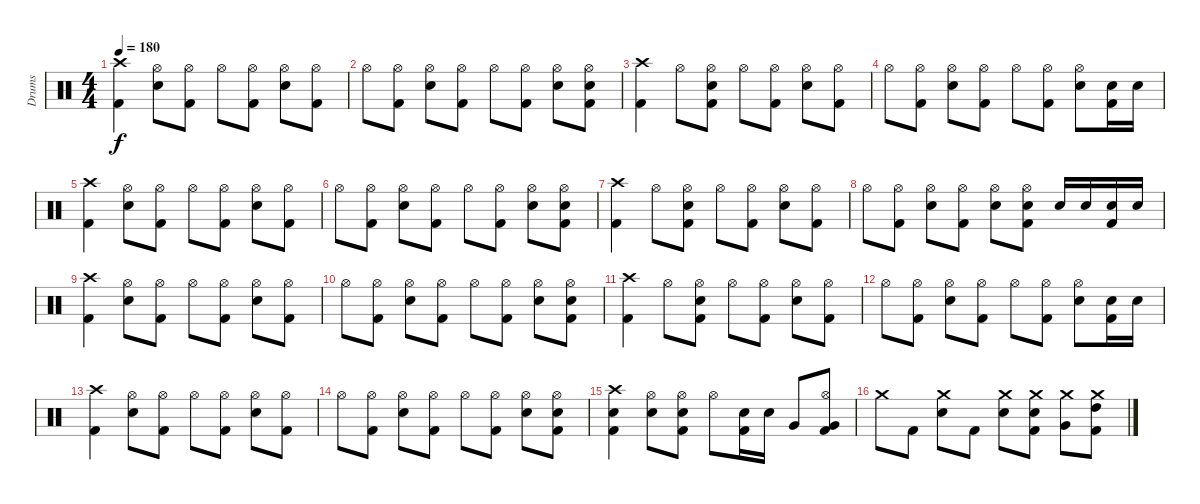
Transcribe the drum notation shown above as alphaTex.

\track ("Drums" "Drums") {instrument percussion}
\staff {score}
\articulation defaults
\ts (4 4)
\tempo 180
\clef neutral
\ks c
("Crash high (hit)" "Kick (hit) 2").4{dy f} ("Hi-Hat (open)" "Electric Snare (hit)").8 ("Hi-Hat (open)" "Kick (hit) 2").8 "Hi-Hat (open)".8 ("Hi-Hat (open)" "Kick (hit) 2").8 ("Hi-Hat (open)" "Electric Snare (hit)").8 ("Hi-Hat (open)" "Kick (hit) 2").8 |
"Hi-Hat (open)".8 ("Hi-Hat (open)" "Kick (hit) 2").8 ("Hi-Hat (open)" "Electric Snare (hit)").8 ("Hi-Hat (open)" "Kick (hit) 2").8 "Hi-Hat (open)".8 ("Hi-Hat (open)" "Kick (hit) 2").8 ("Hi-Hat (open)" "Electric Snare (hit)").8 ("Hi-Hat (open)" "Electric Snare (hit)" "Kick (hit) 2").8 |
("Crash high (hit)" "Kick (hit) 2").4 "Hi-Hat (open)".8 ("Hi-Hat (open)" "Electric Snare (hit)" "Kick (hit) 2").8 "Hi-Hat (open)".8 ("Hi-Hat (open)" "Kick (hit) 2").8 ("Hi-Hat (open)" "Electric Snare (hit)").8 ("Hi-Hat (open)" "Kick (hit) 2").8 |
"Hi-Hat (open)".8 ("Hi-Hat (open)" "Kick (hit) 2").8 ("Hi-Hat (open)" "Electric Snare (hit)").8 ("Hi-Hat (open)" "Kick (hit) 2").8 "Hi-Hat (open)".8 ("Hi-Hat (open)" "Kick (hit) 2").8 ("Hi-Hat (open)" "Electric Snare (hit)").8 ("Electric Snare (hit)" "Kick (hit) 2").16 "Electric Snare (hit)".16 |
("Crash high (hit)" "Kick (hit) 2").4 ("Hi-Hat (open)" "Electric Snare (hit)").8 ("Hi-Hat (open)" "Kick (hit) 2").8 "Hi-Hat (open)".8 ("Hi-Hat (open)" "Kick (hit) 2").8 ("Hi-Hat (open)" "Electric Snare (hit)").8 ("Hi-Hat (open)" "Kick (hit) 2").8 |
"Hi-Hat (open)".8 ("Hi-Hat (open)" "Kick (hit) 2").8 ("Hi-Hat (open)" "Electric Snare (hit)").8 ("Hi-Hat (open)" "Kick (hit) 2").8 "Hi-Hat (open)".8 ("Hi-Hat (open)" "Kick (hit) 2").8 ("Hi-Hat (open)" "Electric Snare (hit)").8 ("Hi-Hat (open)" "Electric Snare (hit)" "Kick (hit) 2").8 |
("Crash high (hit)" "Kick (hit) 2").4 "Hi-Hat (open)".8 ("Hi-Hat (open)" "Electric Snare (hit)" "Kick (hit) 2").8 "Hi-Hat (open)".8 ("Hi-Hat (open)" "Kick (hit) 2").8 ("Hi-Hat (open)" "Electric Snare (hit)").8 ("Hi-Hat (open)" "Kick (hit) 2").8 |
"Hi-Hat (open)".8 ("Hi-Hat (open)" "Kick (hit) 2").8 ("Hi-Hat (open)" "Electric Snare (hit)").8 ("Hi-Hat (open)" "Kick (hit) 2").8 ("Hi-Hat (open)" "Electric Snare (hit)").8 ("Hi-Hat (open)" "Electric Snare (hit)" "Kick (hit) 2").8 "Electric Snare (hit)".16 "Electric Snare (hit)".16 ("Electric Snare (hit)" "Kick (hit) 2").16 "Electric Snare (hit)".16 |
("Crash high (hit)" "Kick (hit) 2").4 ("Hi-Hat (open)" "Electric Snare (hit)").8 ("Hi-Hat (open)" "Kick (hit) 2").8 "Hi-Hat (open)".8 ("Hi-Hat (open)" "Kick (hit) 2").8 ("Hi-Hat (open)" "Electric Snare (hit)").8 ("Hi-Hat (open)" "Kick (hit) 2").8 |
"Hi-Hat (open)".8 ("Hi-Hat (open)" "Kick (hit) 2").8 ("Hi-Hat (open)" "Electric Snare (hit)").8 ("Hi-Hat (open)" "Kick (hit) 2").8 "Hi-Hat (open)".8 ("Hi-Hat (open)" "Kick (hit) 2").8 ("Hi-Hat (open)" "Electric Snare (hit)").8 ("Hi-Hat (open)" "Electric Snare (hit)" "Kick (hit) 2").8 |
("Crash high (hit)" "Kick (hit) 2").4 "Hi-Hat (open)".8 ("Hi-Hat (open)" "Electric Snare (hit)" "Kick (hit) 2").8 "Hi-Hat (open)".8 ("Hi-Hat (open)" "Kick (hit) 2").8 ("Hi-Hat (open)" "Electric Snare (hit)").8 ("Hi-Hat (open)" "Kick (hit) 2").8 |
"Hi-Hat (open)".8 ("Hi-Hat (open)" "Kick (hit) 2").8 ("Hi-Hat (open)" "Electric Snare (hit)").8 ("Hi-Hat (open)" "Kick (hit) 2").8 "Hi-Hat (open)".8 ("Hi-Hat (open)" "Kick (hit) 2").8 ("Hi-Hat (open)" "Electric Snare (hit)").8 ("Electric Snare (hit)" "Kick (hit) 2").16 "Electric Snare (hit)".16 |
("Crash high (hit)" "Kick (hit) 2").4 ("Hi-Hat (open)" "Electric Snare (hit)").8 ("Hi-Hat (open)" "Kick (hit) 2").8 "Hi-Hat (open)".8 ("Hi-Hat (open)" "Kick (hit) 2").8 ("Hi-Hat (open)" "Electric Snare (hit)").8 ("Hi-Hat (open)" "Kick (hit) 2").8 |
"Hi-Hat (open)".8 ("Hi-Hat (open)" "Kick (hit) 2").8 ("Hi-Hat (open)" "Electric Snare (hit)").8 ("Hi-Hat (open)" "Kick (hit) 2").8 "Hi-Hat (open)".8 ("Hi-Hat (open)" "Kick (hit) 2").8 ("Hi-Hat (open)" "Electric Snare (hit)").8 ("Hi-Hat (open)" "Electric Snare (hit)" "Kick (hit) 2").8 |
("Crash high (hit)" "Electric Snare (hit)" "Kick (hit) 2").4 ("Hi-Hat (open)" "Electric Snare (hit)").8 ("Hi-Hat (open)" "Electric Snare (hit)" "Kick (hit) 2").8 "Hi-Hat (open)".8 ("Electric Snare (hit)" "Kick (hit) 2").16 "Electric Snare (hit)".16 "Very Low Tom (hit)".8 ("Hi-Hat (open)" "Very Low Tom (hit)" "Kick (hit) 2").8 |
"Crash medium (hit)".8 "Kick (hit) 2".8 ("Crash medium (hit)" "Electric Snare (hit)").8 "Kick (hit) 2".8 ("Crash medium (hit)" "Electric Snare (hit)").8 ("Crash medium (hit)" "Electric Snare (hit)" "Kick (hit) 2").8 ("Crash medium (hit)" "Very Low Tom (hit)").8 ("Crash medium (hit)" "High Tom (hit)" "Kick (hit) 2").8
